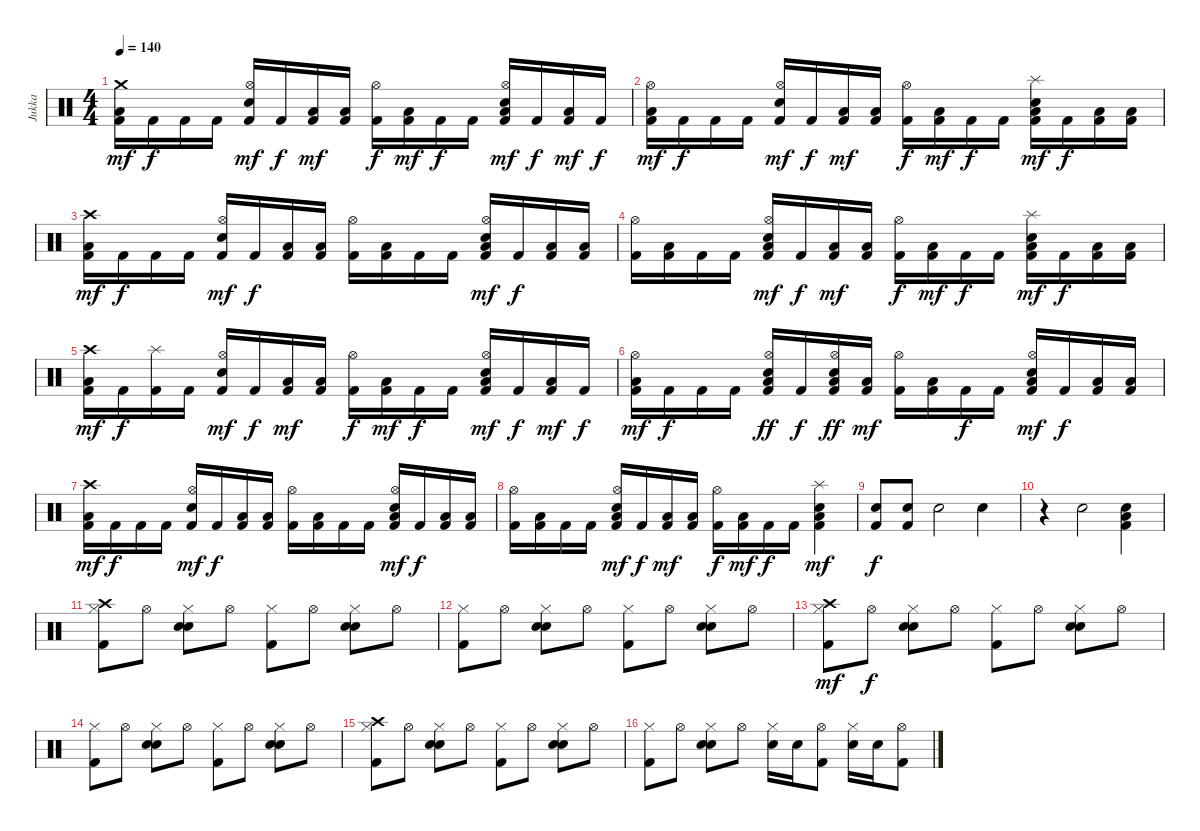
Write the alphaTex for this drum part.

\track ("Jukka" "Jukka") {instrument percussion}
\staff {score}
\articulation defaults
\ts (4 4)
\tempo 140
\clef neutral
\ks aminor
("Crash medium (hit)" "Low Floor Tom (hit)" "Kick (hit) 2").16{dy mf} "Kick (hit) 2".16{dy f} "Kick (hit) 2".16 "Kick (hit) 2".16 ("Hi-Hat (open)" "Electric Snare (hit)" "Kick (hit) 2").16{dy mf} "Kick (hit) 2".16{dy f} ("Low Floor Tom (hit)" "Kick (hit) 2").16{dy mf} ("Low Floor Tom (hit)" "Kick (hit) 2").16 ("Hi-Hat (open)" "Kick (hit) 2").16{dy f} ("Low Floor Tom (hit)" "Kick (hit) 2").16{dy mf} "Kick (hit) 2".16{dy f} "Kick (hit) 2".16 ("Hi-Hat (open)" "Electric Snare (hit)" "Low Floor Tom (hit)" "Kick (hit) 2").16{dy mf} "Kick (hit) 2".16{dy f} ("Low Floor Tom (hit)" "Kick (hit) 2").16{dy mf} "Kick (hit) 2".16{dy f} |
("Hi-Hat (open)" "Low Floor Tom (hit)" "Kick (hit) 2").16{dy mf} "Kick (hit) 2".16{dy f} "Kick (hit) 2".16 "Kick (hit) 2".16 ("Hi-Hat (open)" "Electric Snare (hit)" "Kick (hit) 2").16{dy mf} "Kick (hit) 2".16{dy f} ("Low Floor Tom (hit)" "Kick (hit) 2").16{dy mf} ("Low Floor Tom (hit)" "Kick (hit) 2").16 ("Hi-Hat (open)" "Kick (hit) 2").16{dy f} ("Low Floor Tom (hit)" "Kick (hit) 2").16{dy mf} "Kick (hit) 2".16{dy f} "Kick (hit) 2".16 ("Splash (hit)" "Electric Snare (hit)" "Low Floor Tom (hit)" "Kick (hit) 2").16{dy mf} "Kick (hit) 2".16{dy f} ("Low Floor Tom (hit)" "Kick (hit) 2").16 ("Low Floor Tom (hit)" "Kick (hit) 2").16 |
("Crash high (hit)" "Low Floor Tom (hit)" "Kick (hit) 2").16{dy mf} "Kick (hit) 2".16{dy f} "Kick (hit) 2".16 "Kick (hit) 2".16 ("Hi-Hat (open)" "Electric Snare (hit)" "Kick (hit) 2").16{dy mf} "Kick (hit) 2".16{dy f} ("Low Floor Tom (hit)" "Kick (hit) 2").16 ("Low Floor Tom (hit)" "Kick (hit) 2").16 ("Hi-Hat (open)" "Kick (hit) 2").16 ("Low Floor Tom (hit)" "Kick (hit) 2").16 "Kick (hit) 2".16 "Kick (hit) 2".16 ("Hi-Hat (open)" "Electric Snare (hit)" "Low Floor Tom (hit)" "Kick (hit) 2").16{dy mf} "Kick (hit) 2".16{dy f} ("Low Floor Tom (hit)" "Kick (hit) 2").16 ("Low Floor Tom (hit)" "Kick (hit) 2").16 |
("Hi-Hat (open)" "Kick (hit) 2").16 ("Low Floor Tom (hit)" "Kick (hit) 2").16 "Kick (hit) 2".16 "Kick (hit) 2".16 ("Hi-Hat (open)" "Electric Snare (hit)" "Low Floor Tom (hit)" "Kick (hit) 2").16{dy mf} "Kick (hit) 2".16{dy f} ("Low Floor Tom (hit)" "Kick (hit) 2").16{dy mf} ("Low Floor Tom (hit)" "Kick (hit) 2").16 ("Hi-Hat (open)" "Kick (hit) 2").16{dy f} ("Low Floor Tom (hit)" "Kick (hit) 2").16{dy mf} "Kick (hit) 2".16{dy f} "Kick (hit) 2".16 ("Splash (hit)" "Electric Snare (hit)" "Low Floor Tom (hit)" "Kick (hit) 2").16{dy mf} "Kick (hit) 2".16{dy f} ("Low Floor Tom (hit)" "Kick (hit) 2").16 ("Low Floor Tom (hit)" "Kick (hit) 2").16 |
("Crash high (hit)" "Low Floor Tom (hit)" "Kick (hit) 2").16{dy mf} "Kick (hit) 2".16{dy f} ("Splash (hit)" "Kick (hit) 2").16 "Kick (hit) 2".16 ("Hi-Hat (open)" "Electric Snare (hit)" "Kick (hit) 2").16{dy mf} "Kick (hit) 2".16{dy f} ("Low Floor Tom (hit)" "Kick (hit) 2").16{dy mf} ("Low Floor Tom (hit)" "Kick (hit) 2").16 ("Hi-Hat (open)" "Kick (hit) 2").16{dy f} ("Low Floor Tom (hit)" "Kick (hit) 2").16{dy mf} "Kick (hit) 2".16{dy f} "Kick (hit) 2".16 ("Hi-Hat (open)" "Electric Snare (hit)" "Low Floor Tom (hit)" "Kick (hit) 2").16{dy mf} "Kick (hit) 2".16{dy f} ("Low Floor Tom (hit)" "Kick (hit) 2").16{dy mf} "Kick (hit) 2".16{dy f} |
("Hi-Hat (open)" "Low Floor Tom (hit)" "Kick (hit) 2").16{dy mf} "Kick (hit) 2".16{dy f} "Kick (hit) 2".16 "Kick (hit) 2".16 ("Hi-Hat (open)" "Electric Snare (hit)" "Low Floor Tom (hit)" "Kick (hit) 2").16{dy ff} "Kick (hit) 2".16{dy f} ("Hi-Hat (open)" "Electric Snare (hit)" "Low Floor Tom (hit)" "Kick (hit) 2").16{dy ff} ("Low Floor Tom (hit)" "Kick (hit) 2").16{dy mf} ("Hi-Hat (open)" "Kick (hit) 2").16 ("Low Floor Tom (hit)" "Kick (hit) 2").16 "Kick (hit) 2".16{dy f} "Kick (hit) 2".16 ("Hi-Hat (open)" "Electric Snare (hit)" "Low Floor Tom (hit)" "Kick (hit) 2").16{dy mf} "Kick (hit) 2".16{dy f} ("Low Floor Tom (hit)" "Kick (hit) 2").16 ("Low Floor Tom (hit)" "Kick (hit) 2").16 |
("Crash high (hit)" "Low Floor Tom (hit)" "Kick (hit) 2").16{dy mf} "Kick (hit) 2".16{dy f} "Kick (hit) 2".16 "Kick (hit) 2".16 ("Hi-Hat (open)" "Electric Snare (hit)" "Kick (hit) 2").16{dy mf} "Kick (hit) 2".16{dy f} ("Low Floor Tom (hit)" "Kick (hit) 2").16 ("Low Floor Tom (hit)" "Kick (hit) 2").16 ("Hi-Hat (open)" "Kick (hit) 2").16 ("Low Floor Tom (hit)" "Kick (hit) 2").16 "Kick (hit) 2".16 "Kick (hit) 2".16 ("Hi-Hat (open)" "Electric Snare (hit)" "Low Floor Tom (hit)" "Kick (hit) 2").16{dy mf} "Kick (hit) 2".16{dy f} ("Low Floor Tom (hit)" "Kick (hit) 2").16 ("Low Floor Tom (hit)" "Kick (hit) 2").16 |
("Hi-Hat (open)" "Kick (hit) 2").16 ("Low Floor Tom (hit)" "Kick (hit) 2").16 "Kick (hit) 2".16 "Kick (hit) 2".16 ("Hi-Hat (open)" "Electric Snare (hit)" "Low Floor Tom (hit)" "Kick (hit) 2").16{dy mf} "Kick (hit) 2".16{dy f} ("Low Floor Tom (hit)" "Kick (hit) 2").16{dy mf} ("Low Floor Tom (hit)" "Kick (hit) 2").16 ("Hi-Hat (open)" "Kick (hit) 2").16{dy f} ("Low Floor Tom (hit)" "Kick (hit) 2").16{dy mf} "Kick (hit) 2".16{dy f} "Kick (hit) 2".16 ("Splash (hit)" "Electric Snare (hit)" "Low Floor Tom (hit)" "Kick (hit) 2").4{dy mf} |
("Electric Snare (hit)" "Kick (hit) 2").8{dy f} ("Electric Snare (hit)" "Kick (hit) 2").8 "Hand Clap (hit)".2 "Hand Clap (hit)".4 |
r.4 "Hand Clap (hit)".2 ("Hand Clap (hit)" "Low Floor Tom (hit)" "Kick (hit) 2").4 |
("Crash high (hit)" "Hi-Hat (closed)" "Kick (hit) 2").8 "Hi-Hat (open)".8 ("Hi-Hat (closed)" "Hand Clap (hit)" "Electric Snare (hit)").8 "Hi-Hat (open)".8 ("Hi-Hat (closed)" "Kick (hit) 2").8 "Hi-Hat (open)".8 ("Hi-Hat (closed)" "Hand Clap (hit)" "Electric Snare (hit)").8 "Hi-Hat (open)".8 |
("Hi-Hat (closed)" "Kick (hit) 2").8 "Hi-Hat (open)".8 ("Hi-Hat (closed)" "Hand Clap (hit)" "Electric Snare (hit)").8 "Hi-Hat (open)".8 ("Hi-Hat (closed)" "Kick (hit) 2").8 "Hi-Hat (open)".8 ("Hi-Hat (closed)" "Hand Clap (hit)" "Electric Snare (hit)").8 "Hi-Hat (open)".8 |
("Crash high (hit)" "Hi-Hat (closed)" "Kick (hit) 2").8{dy mf} "Hi-Hat (open)".8{dy f} ("Hi-Hat (closed)" "Hand Clap (hit)" "Electric Snare (hit)").8 "Hi-Hat (open)".8 ("Hi-Hat (closed)" "Kick (hit) 2").8 "Hi-Hat (open)".8 ("Hi-Hat (closed)" "Hand Clap (hit)" "Electric Snare (hit)").8 "Hi-Hat (open)".8 |
("Hi-Hat (closed)" "Kick (hit) 2").8 "Hi-Hat (open)".8 ("Hi-Hat (closed)" "Hand Clap (hit)" "Electric Snare (hit)").8 "Hi-Hat (open)".8 ("Hi-Hat (closed)" "Kick (hit) 2").8 "Hi-Hat (open)".8 ("Hi-Hat (closed)" "Hand Clap (hit)" "Electric Snare (hit)").8 "Hi-Hat (open)".8 |
("Crash high (hit)" "Hi-Hat (closed)" "Kick (hit) 2").8 "Hi-Hat (open)".8 ("Hi-Hat (closed)" "Hand Clap (hit)" "Electric Snare (hit)").8 "Hi-Hat (open)".8 ("Hi-Hat (closed)" "Kick (hit) 2").8 "Hi-Hat (open)".8 ("Hi-Hat (closed)" "Hand Clap (hit)" "Electric Snare (hit)").8 "Hi-Hat (open)".8 |
("Hi-Hat (closed)" "Kick (hit) 2").8 "Hi-Hat (open)".8 ("Hi-Hat (closed)" "Hand Clap (hit)" "Electric Snare (hit)").8 "Hi-Hat (open)".8 ("Hi-Hat (closed)" "Electric Snare (hit)").16 "Electric Snare (hit)".16 ("Hi-Hat (open)" "Kick (hit) 2").8 ("Hi-Hat (closed)" "Electric Snare (hit)").16 "Electric Snare (hit)".16 ("Hi-Hat (open)" "Kick (hit) 2").8
